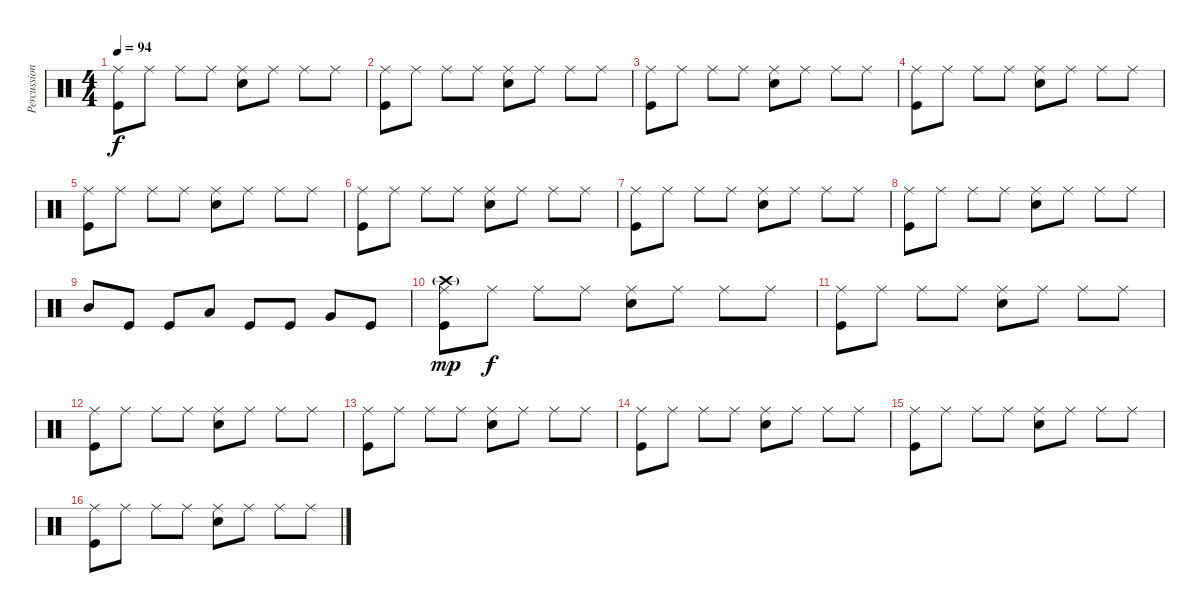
\track ("Percussions" "Percussion") {instrument percussion}
\staff {score}
\articulation defaults
\ts (4 4)
\tempo 94
\clef neutral
\ks c
("Ride (middle)" "Kick (hit)").8{dy f} "Ride (middle)".8 "Ride (middle)".8 "Ride (middle)".8 ("Ride (middle)" "Snare (hit) 2").8 "Ride (middle)".8 "Ride (middle)".8 "Ride (middle)".8 |
("Ride (middle)" "Kick (hit)").8 "Ride (middle)".8 "Ride (middle)".8 "Ride (middle)".8 ("Ride (middle)" "Snare (hit) 2").8 "Ride (middle)".8 "Ride (middle)".8 "Ride (middle)".8 |
("Ride (middle)" "Kick (hit)").8 "Ride (middle)".8 "Ride (middle)".8 "Ride (middle)".8 ("Ride (middle)" "Snare (hit) 2").8 "Ride (middle)".8 "Ride (middle)".8 "Ride (middle)".8 |
("Ride (middle)" "Kick (hit)").8 "Ride (middle)".8 "Ride (middle)".8 "Ride (middle)".8 ("Ride (middle)" "Snare (hit) 2").8 "Ride (middle)".8 "Ride (middle)".8 "Ride (middle)".8 |
("Ride (middle)" "Kick (hit)").8 "Ride (middle)".8 "Ride (middle)".8 "Ride (middle)".8 ("Ride (middle)" "Snare (hit) 2").8 "Ride (middle)".8 "Ride (middle)".8 "Ride (middle)".8 |
("Ride (middle)" "Kick (hit)").8 "Ride (middle)".8 "Ride (middle)".8 "Ride (middle)".8 ("Ride (middle)" "Snare (hit) 2").8 "Ride (middle)".8 "Ride (middle)".8 "Ride (middle)".8 |
("Ride (middle)" "Kick (hit)").8 "Ride (middle)".8 "Ride (middle)".8 "Ride (middle)".8 ("Ride (middle)" "Snare (hit) 2").8 "Ride (middle)".8 "Ride (middle)".8 "Ride (middle)".8 |
("Ride (middle)" "Kick (hit)").8 "Ride (middle)".8 "Ride (middle)".8 "Ride (middle)".8 ("Ride (middle)" "Snare (hit) 2").8 "Ride (middle)".8 "Ride (middle)".8 "Ride (middle)".8 |
"Mid Tom (hit)".8 "Kick (hit)".8 "Kick (hit)".8 "Low Tom (hit)".8 "Kick (hit)".8 "Kick (hit)".8 "Very Low Tom (hit)".8 "Kick (hit)".8 |
("Ride (middle)" "Crash high (hit)"{g} "Kick (hit)").8{dy mp} "Ride (middle)".8{dy f} "Ride (middle)".8 "Ride (middle)".8 ("Ride (middle)" "Snare (hit) 2").8 "Ride (middle)".8 "Ride (middle)".8 "Ride (middle)".8 |
("Ride (middle)" "Kick (hit)").8 "Ride (middle)".8 "Ride (middle)".8 "Ride (middle)".8 ("Ride (middle)" "Snare (hit) 2").8 "Ride (middle)".8 "Ride (middle)".8 "Ride (middle)".8 |
("Ride (middle)" "Kick (hit)").8 "Ride (middle)".8 "Ride (middle)".8 "Ride (middle)".8 ("Ride (middle)" "Snare (hit) 2").8 "Ride (middle)".8 "Ride (middle)".8 "Ride (middle)".8 |
("Ride (middle)" "Kick (hit)").8 "Ride (middle)".8 "Ride (middle)".8 "Ride (middle)".8 ("Ride (middle)" "Snare (hit) 2").8 "Ride (middle)".8 "Ride (middle)".8 "Ride (middle)".8 |
("Ride (middle)" "Kick (hit)").8 "Ride (middle)".8 "Ride (middle)".8 "Ride (middle)".8 ("Ride (middle)" "Snare (hit) 2").8 "Ride (middle)".8 "Ride (middle)".8 "Ride (middle)".8 |
("Ride (middle)" "Kick (hit)").8 "Ride (middle)".8 "Ride (middle)".8 "Ride (middle)".8 ("Ride (middle)" "Snare (hit) 2").8 "Ride (middle)".8 "Ride (middle)".8 "Ride (middle)".8 |
("Ride (middle)" "Kick (hit)").8 "Ride (middle)".8 "Ride (middle)".8 "Ride (middle)".8 ("Ride (middle)" "Snare (hit) 2").8 "Ride (middle)".8 "Ride (middle)".8 "Ride (middle)".8
